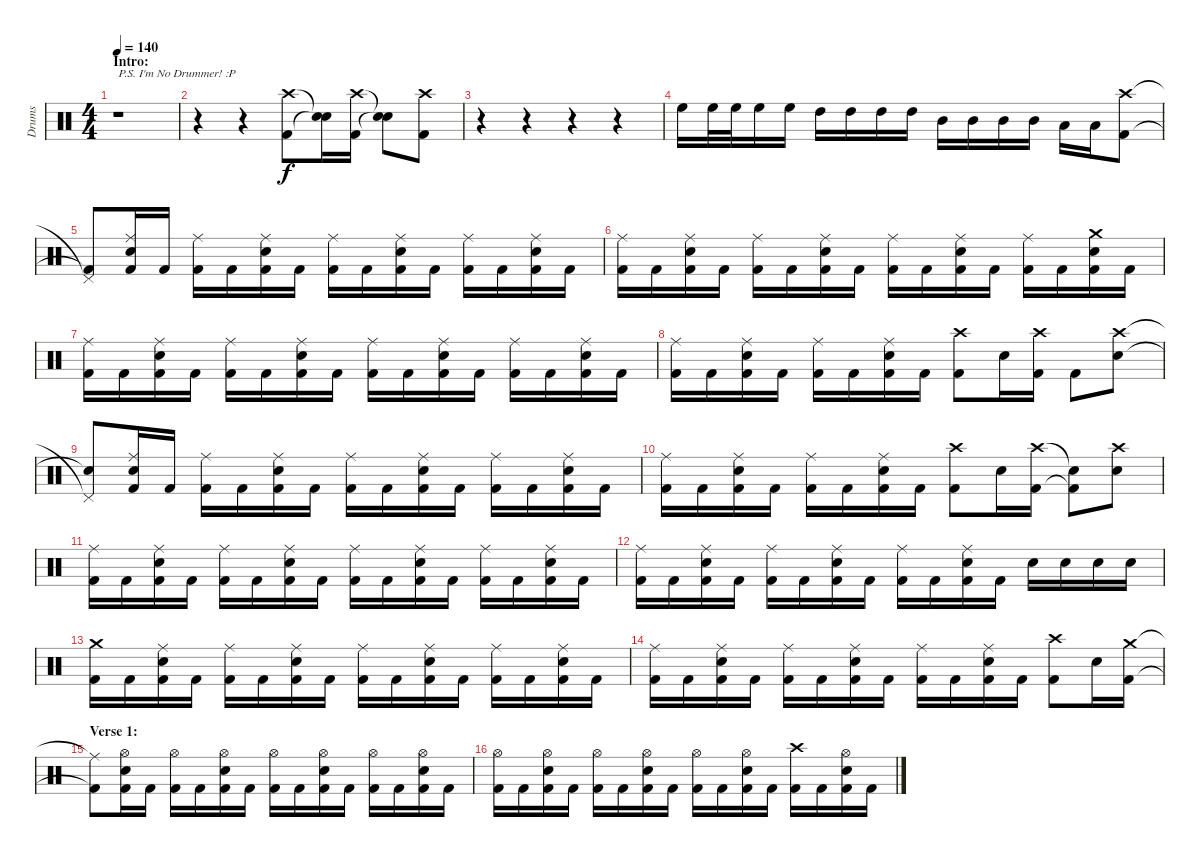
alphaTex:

\track ("Drums" "Drums") {instrument percussion}
\staff {score}
\articulation defaults
\ts (4 4)
\section ("" "Intro:")
\tempo 140
\clef neutral
\ks c
r.1{txt "P.S. I'm No Drummer! :P" dy f} |
r.4 r.4 ("Crash high (hit)" "Kick (hit) 2").8 ("Snare (hit)"{t} "Snare (hit)"{t}).16 ("Crash high (hit)" "Kick (hit) 2").16 ("Snare (hit)"{t} "Snare (hit)"{t}).8 ("Crash high (hit)" "Kick (hit) 2").8 |
r.4 r.4 r.4 r.4 |
"High Floor Tom (hit)".16 "High Floor Tom (hit)".32 "High Floor Tom (hit)".32 "High Floor Tom (hit)".16 "High Floor Tom (hit)".16 "High Tom (hit)".16 "High Tom (hit)".16 "High Tom (hit)".16 "High Tom (hit)".16 "Mid Tom (hit)".16 "Mid Tom (hit)".16 "Mid Tom (hit)".16 "Mid Tom (hit)".16 "Low Tom (hit)".16 "Low Tom (hit)".16 ("Crash high (hit)" "Kick (hit) 2").8 |
("Pedal Hi-Hat (hit)"{t} "Kick (hit) 2"{t}).8 ("Ride (middle)" "Snare (hit) 2" "Kick (hit) 2").16 "Kick (hit) 2".16 ("Ride (middle)" "Kick (hit) 2").16 "Kick (hit) 2".16 ("Ride (middle)" "Snare (hit) 2" "Kick (hit) 2").16 "Kick (hit) 2".16 ("Ride (middle)" "Kick (hit) 2").16 "Kick (hit) 2".16 ("Ride (middle)" "Snare (hit) 2" "Kick (hit) 2").16 "Kick (hit) 2".16 ("Ride (middle)" "Kick (hit) 2").16 "Kick (hit) 2".16 ("Ride (middle)" "Snare (hit) 2" "Kick (hit) 2").16 "Kick (hit) 2".16 |
("Ride (middle)" "Kick (hit) 2").16 "Kick (hit) 2".16 ("Ride (middle)" "Snare (hit) 2" "Kick (hit) 2").16 "Kick (hit) 2".16 ("Ride (middle)" "Kick (hit) 2").16 "Kick (hit) 2".16 ("Ride (middle)" "Snare (hit) 2" "Kick (hit) 2").16 "Kick (hit) 2".16 ("Ride (middle)" "Kick (hit) 2").16 "Kick (hit) 2".16 ("Ride (middle)" "Snare (hit) 2" "Kick (hit) 2").16 "Kick (hit) 2".16 ("Ride (middle)" "Kick (hit) 2").16 "Kick (hit) 2".16 ("Crash medium (hit)" "Snare (hit) 2" "Kick (hit) 2").16 "Kick (hit) 2".16 |
("Ride (middle)" "Kick (hit) 2").16 "Kick (hit) 2".16 ("Ride (middle)" "Snare (hit) 2" "Kick (hit) 2").16 "Kick (hit) 2".16 ("Ride (middle)" "Kick (hit) 2").16 "Kick (hit) 2".16 ("Ride (middle)" "Snare (hit) 2" "Kick (hit) 2").16 "Kick (hit) 2".16 ("Ride (middle)" "Kick (hit) 2").16 "Kick (hit) 2".16 ("Ride (middle)" "Snare (hit) 2" "Kick (hit) 2").16 "Kick (hit) 2".16 ("Ride (middle)" "Kick (hit) 2").16 "Kick (hit) 2".16 ("Ride (middle)" "Snare (hit) 2" "Kick (hit) 2").16 "Kick (hit) 2".16 |
("Ride (middle)" "Kick (hit) 2").16 "Kick (hit) 2".16 ("Ride (middle)" "Snare (hit) 2" "Kick (hit) 2").16 "Kick (hit) 2".16 ("Ride (middle)" "Kick (hit) 2").16 "Kick (hit) 2".16 ("Ride (middle)" "Snare (hit) 2" "Kick (hit) 2").16 "Kick (hit) 2".16 ("Crash high (hit)" "Kick (hit) 2").8 "Snare (hit) 2".16 ("Crash high (hit)" "Kick (hit) 2").16 "Kick (hit) 2".8 ("Crash high (hit)" "Snare (hit) 2").8 |
("Pedal Hi-Hat (hit)"{t} "Snare (hit)"{t}).8 ("Ride (middle)" "Snare (hit) 2" "Kick (hit) 2").16 "Kick (hit) 2".16 ("Ride (middle)" "Kick (hit) 2").16 "Kick (hit) 2".16 ("Ride (middle)" "Snare (hit) 2" "Kick (hit) 2").16 "Kick (hit) 2".16 ("Ride (middle)" "Kick (hit) 2").16 "Kick (hit) 2".16 ("Ride (middle)" "Snare (hit) 2" "Kick (hit) 2").16 "Kick (hit) 2".16 ("Ride (middle)" "Kick (hit) 2").16 "Kick (hit) 2".16 ("Ride (middle)" "Snare (hit) 2" "Kick (hit) 2").16 "Kick (hit) 2".16 |
("Ride (middle)" "Kick (hit) 2").16 "Kick (hit) 2".16 ("Ride (middle)" "Snare (hit) 2" "Kick (hit) 2").16 "Kick (hit) 2".16 ("Ride (middle)" "Kick (hit) 2").16 "Kick (hit) 2".16 ("Ride (middle)" "Snare (hit) 2" "Kick (hit) 2").16 "Kick (hit) 2".16 ("Crash high (hit)" "Kick (hit) 2").8 "Snare (hit) 2".16 ("Crash high (hit)" "Kick (hit) 2").16 ("Snare (hit)"{t} "Kick (hit) 2"{t}).8 ("Crash high (hit)" "Snare (hit) 2").8 |
("Ride (middle)" "Kick (hit) 2").16 "Kick (hit) 2".16 ("Ride (middle)" "Snare (hit) 2" "Kick (hit) 2").16 "Kick (hit) 2".16 ("Ride (middle)" "Kick (hit) 2").16 "Kick (hit) 2".16 ("Ride (middle)" "Snare (hit) 2" "Kick (hit) 2").16 "Kick (hit) 2".16 ("Ride (middle)" "Kick (hit) 2").16 "Kick (hit) 2".16 ("Ride (middle)" "Snare (hit) 2" "Kick (hit) 2").16 "Kick (hit) 2".16 ("Ride (middle)" "Kick (hit) 2").16 "Kick (hit) 2".16 ("Ride (middle)" "Snare (hit) 2" "Kick (hit) 2").16 "Kick (hit) 2".16 |
("Ride (middle)" "Kick (hit) 2").16 "Kick (hit) 2".16 ("Ride (middle)" "Snare (hit) 2" "Kick (hit) 2").16 "Kick (hit) 2".16 ("Ride (middle)" "Kick (hit) 2").16 "Kick (hit) 2".16 ("Ride (middle)" "Snare (hit) 2" "Kick (hit) 2").16 "Kick (hit) 2".16 ("Ride (middle)" "Kick (hit) 2").16 "Kick (hit) 2".16 ("Ride (middle)" "Snare (hit) 2" "Kick (hit) 2").16 "Kick (hit) 2".16 "Snare (hit) 2".16 "Snare (hit) 2".16 "Snare (hit) 2".16 "Snare (hit) 2".16 |
("Crash medium (hit)" "Kick (hit) 2").16 "Kick (hit) 2".16 ("Ride (middle)" "Snare (hit) 2" "Kick (hit) 2").16 "Kick (hit) 2".16 ("Ride (middle)" "Kick (hit) 2").16 "Kick (hit) 2".16 ("Ride (middle)" "Snare (hit) 2" "Kick (hit) 2").16 "Kick (hit) 2".16 ("Ride (middle)" "Kick (hit) 2").16 "Kick (hit) 2".16 ("Ride (middle)" "Snare (hit) 2" "Kick (hit) 2").16 "Kick (hit) 2".16 ("Ride (middle)" "Kick (hit) 2").16 "Kick (hit) 2".16 ("Ride (middle)" "Snare (hit) 2" "Kick (hit) 2").16 "Kick (hit) 2".16 |
("Ride (middle)" "Kick (hit) 2").16 "Kick (hit) 2".16 ("Ride (middle)" "Snare (hit) 2" "Kick (hit) 2").16 "Kick (hit) 2".16 ("Ride (middle)" "Kick (hit) 2").16 "Kick (hit) 2".16 ("Ride (middle)" "Snare (hit) 2" "Kick (hit) 2").16 "Kick (hit) 2".16 ("Ride (middle)" "Kick (hit) 2").16 "Kick (hit) 2".16 ("Ride (middle)" "Snare (hit) 2" "Kick (hit) 2").16 "Kick (hit) 2".16 ("Crash high (hit)" "Kick (hit) 2").8 "Snare (hit) 2".16 ("Crash medium (hit)" "Kick (hit) 2").16 |
\section ("" "Verse 1:")
("Ride (middle)"{t} "Kick (hit) 2"{t}).8 ("Hi-Hat (open)" "Snare (hit) 2" "Kick (hit) 2").16 "Kick (hit) 2".16 ("Hi-Hat (open)" "Kick (hit) 2").16 "Kick (hit) 2".16 ("Hi-Hat (open)" "Snare (hit) 2" "Kick (hit) 2").16 "Kick (hit) 2".16 ("Hi-Hat (open)" "Kick (hit) 2").16 "Kick (hit) 2".16 ("Hi-Hat (open)" "Snare (hit) 2" "Kick (hit) 2").16 "Kick (hit) 2".16 ("Hi-Hat (open)" "Kick (hit) 2").16 "Kick (hit) 2".16 ("Hi-Hat (open)" "Snare (hit) 2" "Kick (hit) 2").16 "Kick (hit) 2".16 |
("Hi-Hat (open)" "Kick (hit) 2").16 "Kick (hit) 2".16 ("Hi-Hat (open)" "Snare (hit) 2" "Kick (hit) 2").16 "Kick (hit) 2".16 ("Hi-Hat (open)" "Kick (hit) 2").16 "Kick (hit) 2".16 ("Hi-Hat (open)" "Snare (hit) 2" "Kick (hit) 2").16 "Kick (hit) 2".16 ("Hi-Hat (open)" "Kick (hit) 2").16 "Kick (hit) 2".16 ("Hi-Hat (open)" "Snare (hit) 2" "Kick (hit) 2").16 "Kick (hit) 2".16 ("Crash high (hit)" "Kick (hit) 2").16 "Kick (hit) 2".16 ("Hi-Hat (open)" "Snare (hit) 2" "Kick (hit) 2").16 "Kick (hit) 2".16
